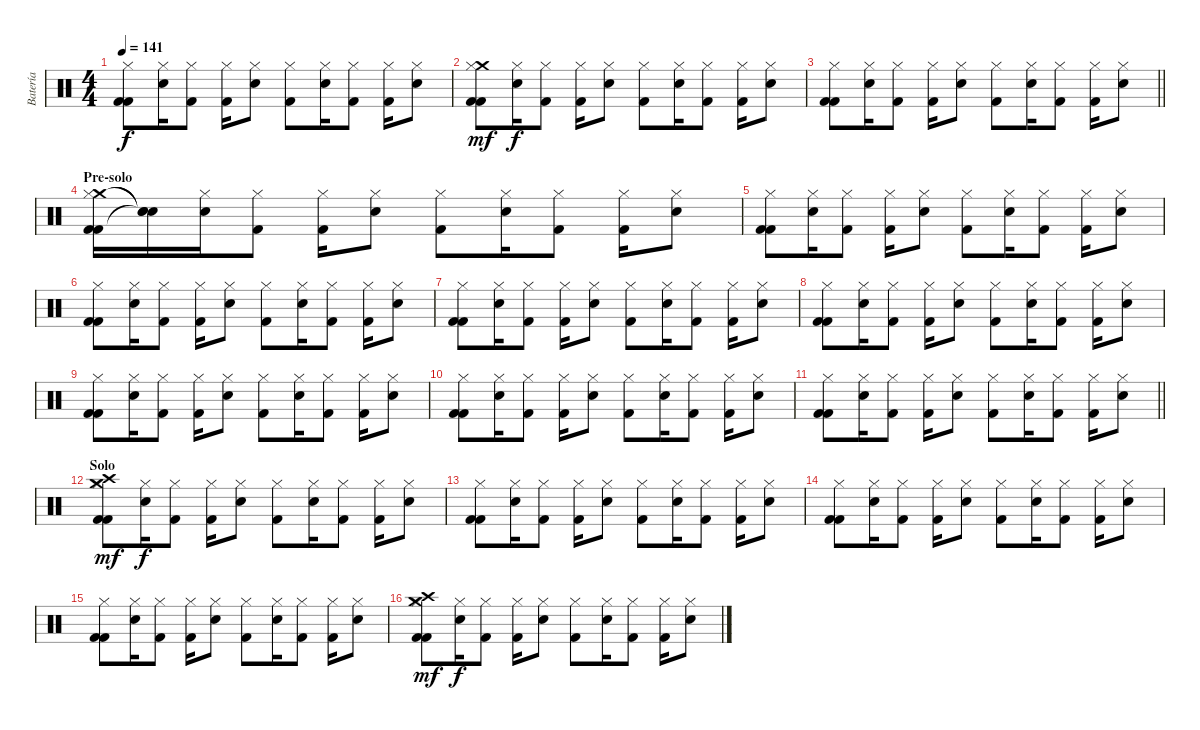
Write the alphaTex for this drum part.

\track ("Batería" "Batería") {instrument percussion}
\staff {score}
\articulation defaults
\ts (4 4)
\tempo 141
\clef neutral
\ks c
("Hi-Hat (closed)" "Kick (hit) 2" "Kick (hit) 2").8{dy f} ("Hi-Hat (closed)" "Electric Snare (hit)").16 ("Hi-Hat (closed)" "Kick (hit) 2").8 ("Hi-Hat (closed)" "Kick (hit) 2").16 ("Hi-Hat (closed)" "Electric Snare (hit)").8 ("Hi-Hat (closed)" "Kick (hit) 2").8 ("Hi-Hat (closed)" "Electric Snare (hit)").16 ("Hi-Hat (closed)" "Kick (hit) 2").8 ("Hi-Hat (closed)" "Kick (hit) 2").16 ("Hi-Hat (closed)" "Electric Snare (hit)").8 |
("Crash medium (hit)" "Hi-Hat (closed)" "Kick (hit) 2" "Kick (hit) 2").8{dy mf} ("Hi-Hat (closed)" "Electric Snare (hit)").16{dy f} ("Hi-Hat (closed)" "Kick (hit) 2").8 ("Hi-Hat (closed)" "Kick (hit) 2").16 ("Hi-Hat (closed)" "Electric Snare (hit)").8 ("Hi-Hat (closed)" "Kick (hit) 2").8 ("Hi-Hat (closed)" "Electric Snare (hit)").16 ("Hi-Hat (closed)" "Kick (hit) 2").8 ("Hi-Hat (closed)" "Kick (hit) 2").16 ("Hi-Hat (closed)" "Electric Snare (hit)").8 |
\barLineRight lightlight
("Hi-Hat (closed)" "Kick (hit) 2" "Kick (hit) 2").8 ("Hi-Hat (closed)" "Electric Snare (hit)").16 ("Hi-Hat (closed)" "Kick (hit) 2").8 ("Hi-Hat (closed)" "Kick (hit) 2").16 ("Hi-Hat (closed)" "Electric Snare (hit)").8 ("Hi-Hat (closed)" "Kick (hit) 2").8 ("Hi-Hat (closed)" "Electric Snare (hit)").16 ("Hi-Hat (closed)" "Kick (hit) 2").8 ("Hi-Hat (closed)" "Kick (hit) 2").16 ("Hi-Hat (closed)" "Electric Snare (hit)").8 |
\section ("" "Pre-solo")
("Crash medium (hit)" "Hi-Hat (closed)" "Kick (hit) 2" "Kick (hit) 2").16 ("Snare (hit)"{t} "Snare (hit)"{t} "Snare (hit)"{t}).16 ("Hi-Hat (closed)" "Electric Snare (hit)").16 ("Hi-Hat (closed)" "Kick (hit) 2").8 ("Hi-Hat (closed)" "Kick (hit) 2").16 ("Hi-Hat (closed)" "Electric Snare (hit)").8 ("Hi-Hat (closed)" "Kick (hit) 2").8 ("Hi-Hat (closed)" "Electric Snare (hit)").16 ("Hi-Hat (closed)" "Kick (hit) 2").8 ("Hi-Hat (closed)" "Kick (hit) 2").16 ("Hi-Hat (closed)" "Electric Snare (hit)").8 |
("Hi-Hat (closed)" "Kick (hit) 2" "Kick (hit) 2").8 ("Hi-Hat (closed)" "Electric Snare (hit)").16 ("Hi-Hat (closed)" "Kick (hit) 2").8 ("Hi-Hat (closed)" "Kick (hit) 2").16 ("Hi-Hat (closed)" "Electric Snare (hit)").8 ("Hi-Hat (closed)" "Kick (hit) 2").8 ("Hi-Hat (closed)" "Electric Snare (hit)").16 ("Hi-Hat (closed)" "Kick (hit) 2").8 ("Hi-Hat (closed)" "Kick (hit) 2").16 ("Hi-Hat (closed)" "Electric Snare (hit)").8 |
("Hi-Hat (closed)" "Kick (hit) 2" "Kick (hit) 2").8 ("Hi-Hat (closed)" "Electric Snare (hit)").16 ("Hi-Hat (closed)" "Kick (hit) 2").8 ("Hi-Hat (closed)" "Kick (hit) 2").16 ("Hi-Hat (closed)" "Electric Snare (hit)").8 ("Hi-Hat (closed)" "Kick (hit) 2").8 ("Hi-Hat (closed)" "Electric Snare (hit)").16 ("Hi-Hat (closed)" "Kick (hit) 2").8 ("Hi-Hat (closed)" "Kick (hit) 2").16 ("Hi-Hat (closed)" "Electric Snare (hit)").8 |
("Hi-Hat (closed)" "Kick (hit) 2" "Kick (hit) 2").8 ("Hi-Hat (closed)" "Electric Snare (hit)").16 ("Hi-Hat (closed)" "Kick (hit) 2").8 ("Hi-Hat (closed)" "Kick (hit) 2").16 ("Hi-Hat (closed)" "Electric Snare (hit)").8 ("Hi-Hat (closed)" "Kick (hit) 2").8 ("Hi-Hat (closed)" "Electric Snare (hit)").16 ("Hi-Hat (closed)" "Kick (hit) 2").8 ("Hi-Hat (closed)" "Kick (hit) 2").16 ("Hi-Hat (closed)" "Electric Snare (hit)").8 |
("Hi-Hat (closed)" "Kick (hit) 2" "Kick (hit) 2").8 ("Hi-Hat (closed)" "Electric Snare (hit)").16 ("Hi-Hat (closed)" "Kick (hit) 2").8 ("Hi-Hat (closed)" "Kick (hit) 2").16 ("Hi-Hat (closed)" "Electric Snare (hit)").8 ("Hi-Hat (closed)" "Kick (hit) 2").8 ("Hi-Hat (closed)" "Electric Snare (hit)").16 ("Hi-Hat (closed)" "Kick (hit) 2").8 ("Hi-Hat (closed)" "Kick (hit) 2").16 ("Hi-Hat (closed)" "Electric Snare (hit)").8 |
("Hi-Hat (closed)" "Kick (hit) 2" "Kick (hit) 2").8 ("Hi-Hat (closed)" "Electric Snare (hit)").16 ("Hi-Hat (closed)" "Kick (hit) 2").8 ("Hi-Hat (closed)" "Kick (hit) 2").16 ("Hi-Hat (closed)" "Electric Snare (hit)").8 ("Hi-Hat (closed)" "Kick (hit) 2").8 ("Hi-Hat (closed)" "Electric Snare (hit)").16 ("Hi-Hat (closed)" "Kick (hit) 2").8 ("Hi-Hat (closed)" "Kick (hit) 2").16 ("Hi-Hat (closed)" "Electric Snare (hit)").8 |
("Hi-Hat (closed)" "Kick (hit) 2" "Kick (hit) 2").8 ("Hi-Hat (closed)" "Electric Snare (hit)").16 ("Hi-Hat (closed)" "Kick (hit) 2").8 ("Hi-Hat (closed)" "Kick (hit) 2").16 ("Hi-Hat (closed)" "Electric Snare (hit)").8 ("Hi-Hat (closed)" "Kick (hit) 2").8 ("Hi-Hat (closed)" "Electric Snare (hit)").16 ("Hi-Hat (closed)" "Kick (hit) 2").8 ("Hi-Hat (closed)" "Kick (hit) 2").16 ("Hi-Hat (closed)" "Electric Snare (hit)").8 |
\barLineRight lightlight
("Hi-Hat (closed)" "Kick (hit) 2" "Kick (hit) 2").8 ("Hi-Hat (closed)" "Electric Snare (hit)").16 ("Hi-Hat (closed)" "Kick (hit) 2").8 ("Hi-Hat (closed)" "Kick (hit) 2").16 ("Hi-Hat (closed)" "Electric Snare (hit)").8 ("Hi-Hat (closed)" "Kick (hit) 2").8 ("Hi-Hat (closed)" "Electric Snare (hit)").16 ("Hi-Hat (closed)" "Kick (hit) 2").8 ("Hi-Hat (closed)" "Kick (hit) 2").16 ("Hi-Hat (closed)" "Electric Snare (hit)").8 |
\section ("" "Solo")
("Crash medium (hit)" "Crash high (hit)" "Hi-Hat (closed)" "Kick (hit) 2" "Kick (hit) 2").8{dy mf} ("Hi-Hat (closed)" "Electric Snare (hit)").16{dy f} ("Hi-Hat (closed)" "Kick (hit) 2").8 ("Hi-Hat (closed)" "Kick (hit) 2").16 ("Hi-Hat (closed)" "Electric Snare (hit)").8 ("Hi-Hat (closed)" "Kick (hit) 2").8 ("Hi-Hat (closed)" "Electric Snare (hit)").16 ("Hi-Hat (closed)" "Kick (hit) 2").8 ("Hi-Hat (closed)" "Kick (hit) 2").16 ("Hi-Hat (closed)" "Electric Snare (hit)").8 |
("Hi-Hat (closed)" "Kick (hit) 2" "Kick (hit) 2").8 ("Hi-Hat (closed)" "Electric Snare (hit)").16 ("Hi-Hat (closed)" "Kick (hit) 2").8 ("Hi-Hat (closed)" "Kick (hit) 2").16 ("Hi-Hat (closed)" "Electric Snare (hit)").8 ("Hi-Hat (closed)" "Kick (hit) 2").8 ("Hi-Hat (closed)" "Electric Snare (hit)").16 ("Hi-Hat (closed)" "Kick (hit) 2").8 ("Hi-Hat (closed)" "Kick (hit) 2").16 ("Hi-Hat (closed)" "Electric Snare (hit)").8 |
("Hi-Hat (closed)" "Kick (hit) 2" "Kick (hit) 2").8 ("Hi-Hat (closed)" "Electric Snare (hit)").16 ("Hi-Hat (closed)" "Kick (hit) 2").8 ("Hi-Hat (closed)" "Kick (hit) 2").16 ("Hi-Hat (closed)" "Electric Snare (hit)").8 ("Hi-Hat (closed)" "Kick (hit) 2").8 ("Hi-Hat (closed)" "Electric Snare (hit)").16 ("Hi-Hat (closed)" "Kick (hit) 2").8 ("Hi-Hat (closed)" "Kick (hit) 2").16 ("Hi-Hat (closed)" "Electric Snare (hit)").8 |
("Hi-Hat (closed)" "Kick (hit) 2" "Kick (hit) 2").8 ("Hi-Hat (closed)" "Electric Snare (hit)").16 ("Hi-Hat (closed)" "Kick (hit) 2").8 ("Hi-Hat (closed)" "Kick (hit) 2").16 ("Hi-Hat (closed)" "Electric Snare (hit)").8 ("Hi-Hat (closed)" "Kick (hit) 2").8 ("Hi-Hat (closed)" "Electric Snare (hit)").16 ("Hi-Hat (closed)" "Kick (hit) 2").8 ("Hi-Hat (closed)" "Kick (hit) 2").16 ("Hi-Hat (closed)" "Electric Snare (hit)").8 |
("Crash medium (hit)" "Crash high (hit)" "Hi-Hat (closed)" "Kick (hit) 2" "Kick (hit) 2").8{dy mf} ("Hi-Hat (closed)" "Electric Snare (hit)").16{dy f} ("Hi-Hat (closed)" "Kick (hit) 2").8 ("Hi-Hat (closed)" "Kick (hit) 2").16 ("Hi-Hat (closed)" "Electric Snare (hit)").8 ("Hi-Hat (closed)" "Kick (hit) 2").8 ("Hi-Hat (closed)" "Electric Snare (hit)").16 ("Hi-Hat (closed)" "Kick (hit) 2").8 ("Hi-Hat (closed)" "Kick (hit) 2").16 ("Hi-Hat (closed)" "Electric Snare (hit)").8
